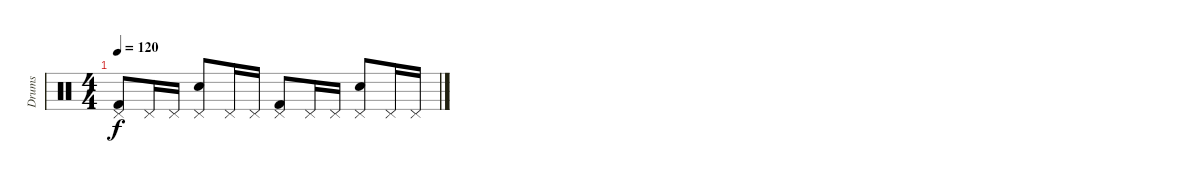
\track ("Drums" "Drums") {instrument percussion}
\staff {score}
\articulation defaults
\ts (4 4)
\tempo 120
\clef neutral
\ks c
("Kick (hit) 2" "Pedal Hi-Hat (hit)").8{dy f} "Pedal Hi-Hat (hit)".16 "Pedal Hi-Hat (hit)".16 ("Snare (hit) 2" "Pedal Hi-Hat (hit)").8 "Pedal Hi-Hat (hit)".16 "Pedal Hi-Hat (hit)".16 ("Kick (hit) 2" "Pedal Hi-Hat (hit)").8 "Pedal Hi-Hat (hit)".16 "Pedal Hi-Hat (hit)".16 ("Snare (hit) 2" "Pedal Hi-Hat (hit)").8 "Pedal Hi-Hat (hit)".16 "Pedal Hi-Hat (hit)".16
